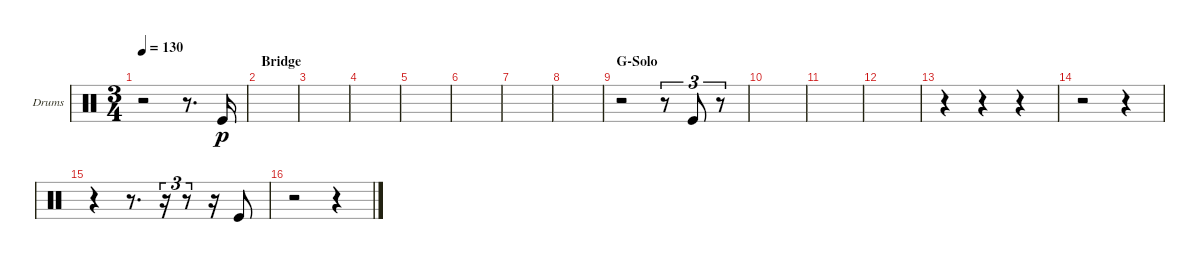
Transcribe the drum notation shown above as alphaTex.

\bracketExtendMode groupsimilarinstruments
\firstSystemTrackNameOrientation horizontal
\otherSystemsTrackNameOrientation horizontal
\track ("Kick" "Drums") {instrument percussion}
\staff {score}
\articulation defaults
\ts (3 4)
\tempo 130
\clef neutral
\ks c
r.2{dy p} r.8{d} "Kick (hit)".16 |
\section ("" "Bridge")
|
|
|
|
|
|
|
\section ("" "G-Solo")
r.2 r.8{tu (3 2)} "Kick (hit)".8{tu (3 2)} r.8{tu (3 2)} |
|
|
|
r.4 r.4 r.4 |
r.2 r.4 |
r.4 r.8{d} r.16{tu (3 2)} r.8{tu (3 2)} r.16 "Kick (hit)".8 |
r.2 r.4
